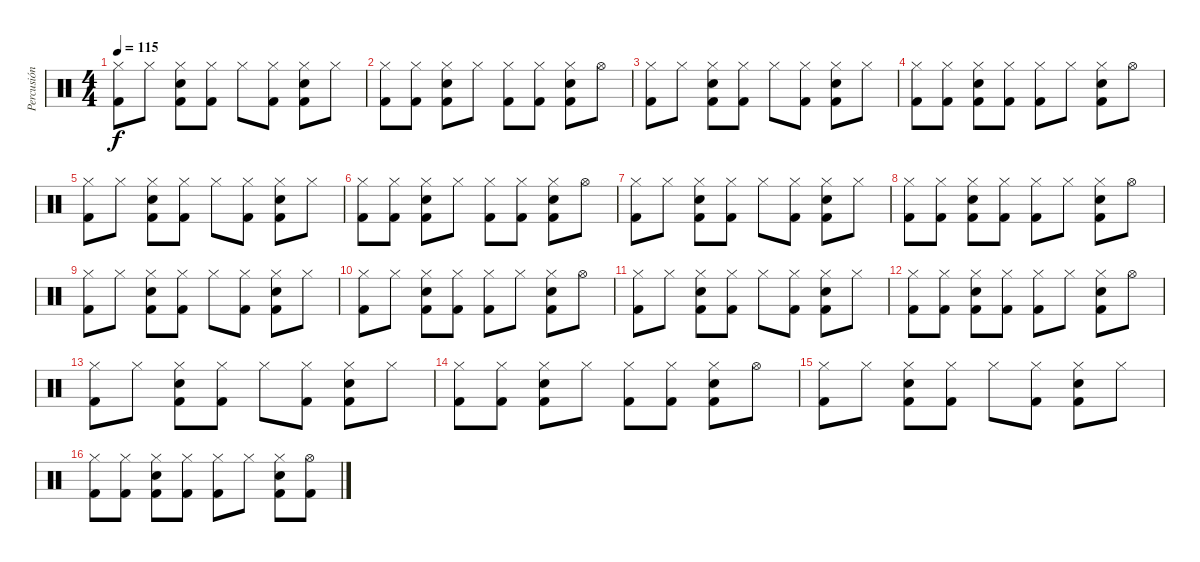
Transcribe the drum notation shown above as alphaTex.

\track ("Percusión" "Percusión") {instrument percussion}
\staff {score}
\articulation defaults
\ts (4 4)
\tempo 115
\clef neutral
\ks c
("Hi-Hat (closed)" "Kick (hit) 2").8{dy f} "Hi-Hat (closed)".8 ("Hi-Hat (closed)" "Electric Snare (hit)" "Kick (hit) 2").8 ("Hi-Hat (closed)" "Kick (hit) 2").8 "Hi-Hat (closed)".8 ("Hi-Hat (closed)" "Kick (hit) 2").8 ("Hi-Hat (closed)" "Electric Snare (hit)" "Kick (hit) 2").8 "Hi-Hat (closed)".8 |
("Hi-Hat (closed)" "Kick (hit) 2").8 ("Hi-Hat (closed)" "Kick (hit) 2").8 ("Hi-Hat (closed)" "Electric Snare (hit)" "Kick (hit) 2").8 "Hi-Hat (closed)".8 ("Hi-Hat (closed)" "Kick (hit) 2").8 ("Hi-Hat (closed)" "Kick (hit) 2").8 ("Hi-Hat (closed)" "Electric Snare (hit)" "Kick (hit) 2").8 "Hi-Hat (open)".8 |
("Hi-Hat (closed)" "Kick (hit) 2").8 "Hi-Hat (closed)".8 ("Hi-Hat (closed)" "Electric Snare (hit)" "Kick (hit) 2").8 ("Hi-Hat (closed)" "Kick (hit) 2").8 "Hi-Hat (closed)".8 ("Hi-Hat (closed)" "Kick (hit) 2").8 ("Hi-Hat (closed)" "Electric Snare (hit)" "Kick (hit) 2").8 "Hi-Hat (closed)".8 |
("Hi-Hat (closed)" "Kick (hit) 2").8 ("Hi-Hat (closed)" "Kick (hit) 2").8 ("Hi-Hat (closed)" "Electric Snare (hit)" "Kick (hit) 2").8 ("Hi-Hat (closed)" "Kick (hit) 2").8 ("Hi-Hat (closed)" "Kick (hit) 2").8 "Hi-Hat (closed)".8 ("Hi-Hat (closed)" "Electric Snare (hit)" "Kick (hit) 2").8 "Hi-Hat (open)".8 |
("Hi-Hat (closed)" "Kick (hit) 2").8 "Hi-Hat (closed)".8 ("Hi-Hat (closed)" "Electric Snare (hit)" "Kick (hit) 2").8 ("Hi-Hat (closed)" "Kick (hit) 2").8 "Hi-Hat (closed)".8 ("Hi-Hat (closed)" "Kick (hit) 2").8 ("Hi-Hat (closed)" "Electric Snare (hit)" "Kick (hit) 2").8 "Hi-Hat (closed)".8 |
("Hi-Hat (closed)" "Kick (hit) 2").8 ("Hi-Hat (closed)" "Kick (hit) 2").8 ("Hi-Hat (closed)" "Electric Snare (hit)" "Kick (hit) 2").8 "Hi-Hat (closed)".8 ("Hi-Hat (closed)" "Kick (hit) 2").8 ("Hi-Hat (closed)" "Kick (hit) 2").8 ("Hi-Hat (closed)" "Electric Snare (hit)" "Kick (hit) 2").8 "Hi-Hat (open)".8 |
("Hi-Hat (closed)" "Kick (hit) 2").8 "Hi-Hat (closed)".8 ("Hi-Hat (closed)" "Electric Snare (hit)" "Kick (hit) 2").8 ("Hi-Hat (closed)" "Kick (hit) 2").8 "Hi-Hat (closed)".8 ("Hi-Hat (closed)" "Kick (hit) 2").8 ("Hi-Hat (closed)" "Electric Snare (hit)" "Kick (hit) 2").8 "Hi-Hat (closed)".8 |
("Hi-Hat (closed)" "Kick (hit) 2").8 ("Hi-Hat (closed)" "Kick (hit) 2").8 ("Hi-Hat (closed)" "Electric Snare (hit)" "Kick (hit) 2").8 ("Hi-Hat (closed)" "Kick (hit) 2").8 ("Hi-Hat (closed)" "Kick (hit) 2").8 "Hi-Hat (closed)".8 ("Hi-Hat (closed)" "Electric Snare (hit)" "Kick (hit) 2").8 "Hi-Hat (open)".8 |
("Hi-Hat (closed)" "Kick (hit) 2").8 "Hi-Hat (closed)".8 ("Hi-Hat (closed)" "Electric Snare (hit)" "Kick (hit) 2").8 ("Hi-Hat (closed)" "Kick (hit) 2").8 "Hi-Hat (closed)".8 ("Hi-Hat (closed)" "Kick (hit) 2").8 ("Hi-Hat (closed)" "Electric Snare (hit)" "Kick (hit) 2").8 "Hi-Hat (closed)".8 |
("Hi-Hat (closed)" "Kick (hit) 2").8 "Hi-Hat (closed)".8 ("Hi-Hat (closed)" "Electric Snare (hit)" "Kick (hit) 2").8 ("Hi-Hat (closed)" "Kick (hit) 2").8 ("Hi-Hat (closed)" "Kick (hit) 2").8 "Hi-Hat (closed)".8 ("Hi-Hat (closed)" "Electric Snare (hit)" "Kick (hit) 2").8 "Hi-Hat (open)".8 |
("Hi-Hat (closed)" "Kick (hit) 2").8 "Hi-Hat (closed)".8 ("Hi-Hat (closed)" "Electric Snare (hit)" "Kick (hit) 2").8 ("Hi-Hat (closed)" "Kick (hit) 2").8 "Hi-Hat (closed)".8 ("Hi-Hat (closed)" "Kick (hit) 2").8 ("Hi-Hat (closed)" "Electric Snare (hit)" "Kick (hit) 2").8 "Hi-Hat (closed)".8 |
("Hi-Hat (closed)" "Kick (hit) 2").8 ("Hi-Hat (closed)" "Kick (hit) 2").8 ("Hi-Hat (closed)" "Electric Snare (hit)" "Kick (hit) 2").8 ("Hi-Hat (closed)" "Kick (hit) 2").8 ("Hi-Hat (closed)" "Kick (hit) 2").8 "Hi-Hat (closed)".8 ("Hi-Hat (closed)" "Electric Snare (hit)" "Kick (hit) 2").8 "Hi-Hat (open)".8 |
("Hi-Hat (closed)" "Kick (hit) 2").8 "Hi-Hat (closed)".8 ("Hi-Hat (closed)" "Electric Snare (hit)" "Kick (hit) 2").8 ("Hi-Hat (closed)" "Kick (hit) 2").8 "Hi-Hat (closed)".8 ("Hi-Hat (closed)" "Kick (hit) 2").8 ("Hi-Hat (closed)" "Electric Snare (hit)" "Kick (hit) 2").8 "Hi-Hat (closed)".8 |
("Hi-Hat (closed)" "Kick (hit) 2").8 ("Hi-Hat (closed)" "Kick (hit) 2").8 ("Hi-Hat (closed)" "Electric Snare (hit)" "Kick (hit) 2").8 "Hi-Hat (closed)".8 ("Hi-Hat (closed)" "Kick (hit) 2").8 ("Hi-Hat (closed)" "Kick (hit) 2").8 ("Hi-Hat (closed)" "Electric Snare (hit)" "Kick (hit) 2").8 "Hi-Hat (open)".8 |
("Hi-Hat (closed)" "Kick (hit) 2").8 "Hi-Hat (closed)".8 ("Hi-Hat (closed)" "Electric Snare (hit)" "Kick (hit) 2").8 ("Hi-Hat (closed)" "Kick (hit) 2").8 "Hi-Hat (closed)".8 ("Hi-Hat (closed)" "Kick (hit) 2").8 ("Hi-Hat (closed)" "Electric Snare (hit)" "Kick (hit) 2").8 "Hi-Hat (closed)".8 |
("Hi-Hat (closed)" "Kick (hit) 2").8 ("Hi-Hat (closed)" "Kick (hit) 2").8 ("Hi-Hat (closed)" "Electric Snare (hit)" "Kick (hit) 2").8 ("Hi-Hat (closed)" "Kick (hit) 2").8 ("Hi-Hat (closed)" "Kick (hit) 2").8 "Hi-Hat (closed)".8 ("Hi-Hat (closed)" "Electric Snare (hit)" "Kick (hit) 2").8 ("Hi-Hat (open)" "Kick (hit) 2").8
